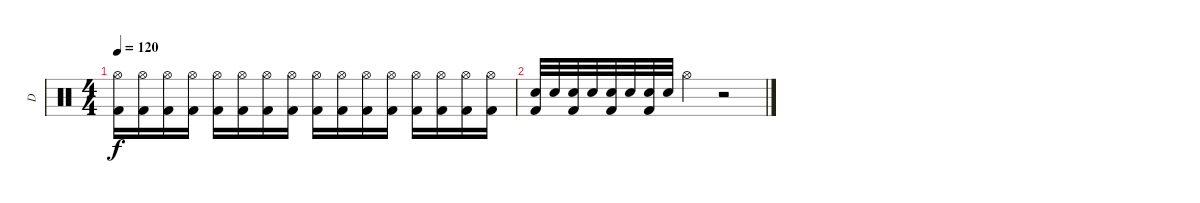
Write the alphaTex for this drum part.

\track ("D" "D") {instrument percussion}
\staff {score}
\articulation defaults
\ts (4 4)
\tempo 120
\clef neutral
\ks c
("Hi-Hat (open)" "Kick (hit) 2").16{dy f} ("Hi-Hat (open)" "Kick (hit) 2").16 ("Hi-Hat (open)" "Kick (hit) 2").16 ("Hi-Hat (open)" "Kick (hit) 2").16 ("Hi-Hat (open)" "Kick (hit) 2").16 ("Hi-Hat (open)" "Kick (hit) 2").16 ("Hi-Hat (open)" "Kick (hit) 2").16 ("Hi-Hat (open)" "Kick (hit) 2").16 ("Hi-Hat (open)" "Kick (hit) 2").16 ("Hi-Hat (open)" "Kick (hit) 2").16 ("Hi-Hat (open)" "Kick (hit) 2").16 ("Hi-Hat (open)" "Kick (hit) 2").16 ("Hi-Hat (open)" "Kick (hit) 2").16 ("Hi-Hat (open)" "Kick (hit) 2").16 ("Hi-Hat (open)" "Kick (hit) 2").16 ("Hi-Hat (open)" "Kick (hit) 2").16 |
("Electric Snare (hit)" "Kick (hit) 2").32 "Electric Snare (hit)".32 ("Electric Snare (hit)" "Kick (hit) 2").32 "Electric Snare (hit)".32 ("Electric Snare (hit)" "Kick (hit) 2").32 "Electric Snare (hit)".32 ("Electric Snare (hit)" "Kick (hit) 2").32 "Electric Snare (hit)".32 "Hi-Hat (open)".4 r.2
